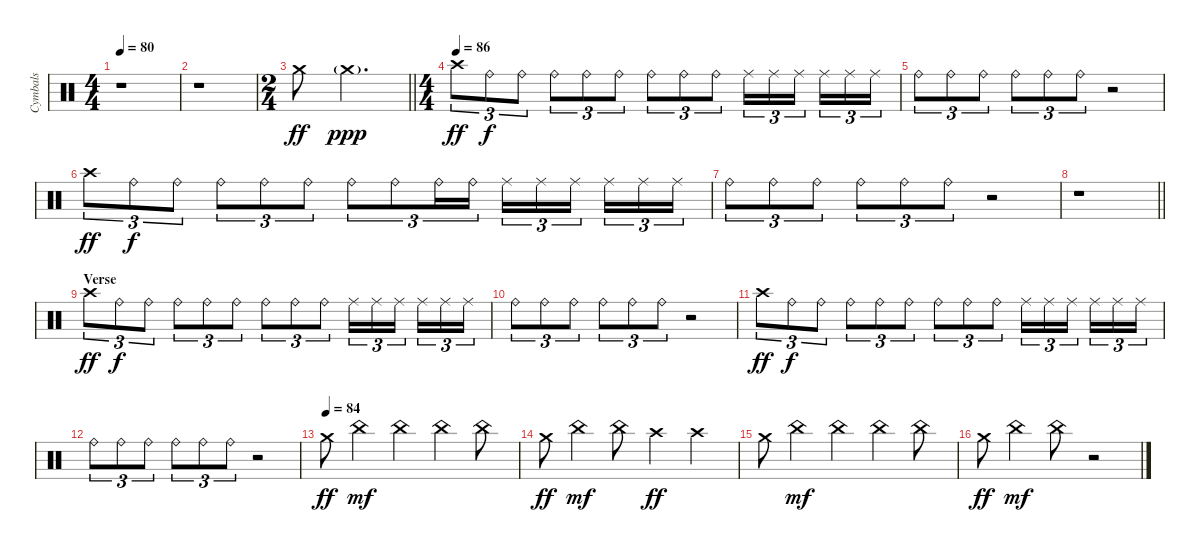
\track ("Cymbals" "Cymbals") {instrument percussion}
\staff {score}
\articulation defaults
\ts (4 4)
\tempo 80
\clef neutral
\ks c
r.1{dy f} |
r.1 |
\ts (2 4)
\barLineRight lightlight "Crash medium (hit)".8{dy ff} "Crash medium (hit)"{g}.4{d dy ppp}
|
\ts (4 4)
\section ("" "")
\tempo (86)
"Crash high (hit)".8{tu (3 2) dy ff} "Ride (bell)".8{tu (3 2) dy f} "Ride (bell)".8{tu (3 2)} "Ride (bell)".8{tu (3 2)} "Ride (bell)".8{tu (3 2)} "Ride (bell)".8{tu (3 2)} "Ride (bell)".8{tu (3 2)} "Ride (bell)".8{tu (3 2)} "Ride (bell)".8{tu (3 2)} "Ride (middle)".16{tu (3 2)} "Ride (middle)".16{tu (3 2)} "Ride (middle)".16{tu (3 2) beam splitsecondary} "Ride (middle)".16{tu (3 2)} "Ride (middle)".16{tu (3 2)} "Ride (middle)".16{tu (3 2)} |
"Ride (bell)".8{tu (3 2)} "Ride (bell)".8{tu (3 2)} "Ride (bell)".8{tu (3 2)} "Ride (bell)".8{tu (3 2)} "Ride (bell)".8{tu (3 2)} "Ride (bell)".8{tu (3 2)} r.2 |
"Crash high (hit)".8{tu (3 2) dy ff} "Ride (bell)".8{tu (3 2) dy f} "Ride (bell)".8{tu (3 2)} "Ride (bell)".8{tu (3 2)} "Ride (bell)".8{tu (3 2)} "Ride (bell)".8{tu (3 2)} "Ride (bell)".8{tu (3 2)} "Ride (bell)".8{tu (3 2)} "Ride (bell)".16{tu (3 2)} "Ride (bell)".16{tu (3 2)} "Ride (middle)".16{tu (3 2)} "Ride (middle)".16{tu (3 2)} "Ride (middle)".16{tu (3 2) beam splitsecondary} "Ride (middle)".16{tu (3 2)} "Ride (middle)".16{tu (3 2)} "Ride (middle)".16{tu (3 2)} |
"Ride (bell)".8{tu (3 2)} "Ride (bell)".8{tu (3 2)} "Ride (bell)".8{tu (3 2)} "Ride (bell)".8{tu (3 2)} "Ride (bell)".8{tu (3 2)} "Ride (bell)".8{tu (3 2)} r.2 |
\barLineRight lightlight
r.1 |
\section ("" "Verse")
"Crash high (hit)".8{tu (3 2) dy ff} "Ride (bell)".8{tu (3 2) dy f} "Ride (bell)".8{tu (3 2)} "Ride (bell)".8{tu (3 2)} "Ride (bell)".8{tu (3 2)} "Ride (bell)".8{tu (3 2)} "Ride (bell)".8{tu (3 2)} "Ride (bell)".8{tu (3 2)} "Ride (bell)".8{tu (3 2)} "Ride (middle)".16{tu (3 2)} "Ride (middle)".16{tu (3 2)} "Ride (middle)".16{tu (3 2) beam splitsecondary} "Ride (middle)".16{tu (3 2)} "Ride (middle)".16{tu (3 2)} "Ride (middle)".16{tu (3 2)} |
"Ride (bell)".8{tu (3 2)} "Ride (bell)".8{tu (3 2)} "Ride (bell)".8{tu (3 2)} "Ride (bell)".8{tu (3 2)} "Ride (bell)".8{tu (3 2)} "Ride (bell)".8{tu (3 2)} r.2 |
"Crash high (hit)".8{tu (3 2) dy ff} "Ride (bell)".8{tu (3 2) dy f} "Ride (bell)".8{tu (3 2)} "Ride (bell)".8{tu (3 2)} "Ride (bell)".8{tu (3 2)} "Ride (bell)".8{tu (3 2)} "Ride (bell)".8{tu (3 2)} "Ride (bell)".8{tu (3 2)} "Ride (bell)".8{tu (3 2)} "Ride (middle)".16{tu (3 2)} "Ride (middle)".16{tu (3 2)} "Ride (middle)".16{tu (3 2) beam splitsecondary} "Ride (middle)".16{tu (3 2)} "Ride (middle)".16{tu (3 2)} "Ride (middle)".16{tu (3 2)} |
"Ride (bell)".8{tu (3 2)} "Ride (bell)".8{tu (3 2)} "Ride (bell)".8{tu (3 2)} "Ride (bell)".8{tu (3 2)} "Ride (bell)".8{tu (3 2)} "Ride (bell)".8{tu (3 2)} r.2 |
\tempo (84)
"Crash medium (hit)".8{dy ff} "China (hit)".4{dy mf} "China (hit)".4 "China (hit)".4 "China (hit)".8 |
"Crash medium (hit)".8{dy ff} "China (hit)".4{dy mf} "China (hit)".8 "Crash high (hit)".4{dy ff} "Crash high (hit)".4 |
"Crash medium (hit)".8 "China (hit)".4{dy mf} "China (hit)".4 "China (hit)".4 "China (hit)".8 |
"Crash medium (hit)".8{dy ff} "China (hit)".4{dy mf} "China (hit)".8 r.2
